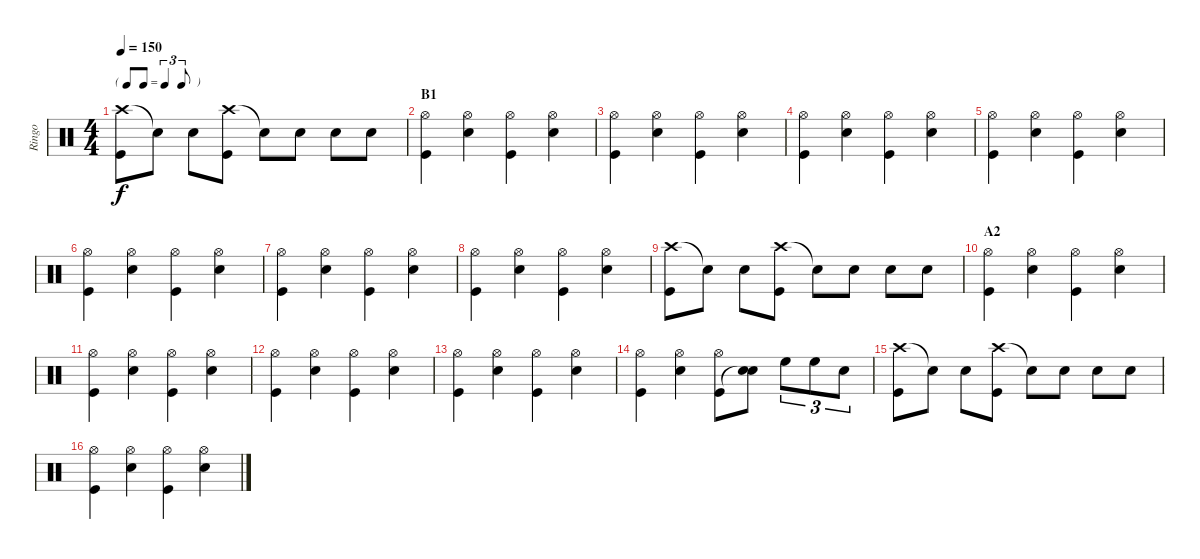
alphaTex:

\track ("Ringo" "Ringo") {instrument percussion}
\staff {score}
\articulation defaults
\ts (4 4)
\tf triplet8th
\tempo 150
\clef neutral
\ks c
("Crash high (hit)" "Kick (hit)").8{dy f} "Snare (hit)"{t}.8 "Snare (hit) 2".8 ("Crash high (hit)" "Kick (hit)").8 "Snare (hit)"{t}.8 "Snare (hit) 2".8 "Snare (hit) 2".8 "Snare (hit) 2".8 |
\section ("" "B1")
("Hi-Hat (open)" "Kick (hit)").4 ("Hi-Hat (open)" "Snare (hit) 2").4 ("Hi-Hat (open)" "Kick (hit)").4 ("Hi-Hat (open)" "Snare (hit) 2").4 |
("Hi-Hat (open)" "Kick (hit)").4 ("Hi-Hat (open)" "Snare (hit) 2").4 ("Hi-Hat (open)" "Kick (hit)").4 ("Hi-Hat (open)" "Snare (hit) 2").4 |
("Hi-Hat (open)" "Kick (hit)").4 ("Hi-Hat (open)" "Snare (hit) 2").4 ("Hi-Hat (open)" "Kick (hit)").4 ("Hi-Hat (open)" "Snare (hit) 2").4 |
("Hi-Hat (open)" "Kick (hit)").4 ("Hi-Hat (open)" "Snare (hit) 2").4 ("Hi-Hat (open)" "Kick (hit)").4 ("Hi-Hat (open)" "Snare (hit) 2").4 |
("Hi-Hat (open)" "Kick (hit)").4 ("Hi-Hat (open)" "Snare (hit) 2").4 ("Hi-Hat (open)" "Kick (hit)").4 ("Hi-Hat (open)" "Snare (hit) 2").4 |
("Hi-Hat (open)" "Kick (hit)").4 ("Hi-Hat (open)" "Snare (hit) 2").4 ("Hi-Hat (open)" "Kick (hit)").4 ("Hi-Hat (open)" "Snare (hit) 2").4 |
("Hi-Hat (open)" "Kick (hit)").4 ("Hi-Hat (open)" "Snare (hit) 2").4 ("Hi-Hat (open)" "Kick (hit)").4 ("Hi-Hat (open)" "Snare (hit) 2").4 |
("Crash high (hit)" "Kick (hit)").8 "Snare (hit)"{t}.8 "Snare (hit) 2".8 ("Crash high (hit)" "Kick (hit)").8 "Snare (hit)"{t}.8 "Snare (hit) 2".8 "Snare (hit) 2".8 "Snare (hit) 2".8 |
\section ("" "A2")
("Hi-Hat (open)" "Kick (hit)").4 ("Hi-Hat (open)" "Snare (hit) 2").4 ("Hi-Hat (open)" "Kick (hit)").4 ("Hi-Hat (open)" "Snare (hit) 2").4 |
("Hi-Hat (open)" "Kick (hit)").4 ("Hi-Hat (open)" "Snare (hit) 2").4 ("Hi-Hat (open)" "Kick (hit)").4 ("Hi-Hat (open)" "Snare (hit) 2").4 |
("Hi-Hat (open)" "Kick (hit)").4 ("Hi-Hat (open)" "Snare (hit) 2").4 ("Hi-Hat (open)" "Kick (hit)").4 ("Hi-Hat (open)" "Snare (hit) 2").4 |
("Hi-Hat (open)" "Kick (hit)").4 ("Hi-Hat (open)" "Snare (hit) 2").4 ("Hi-Hat (open)" "Kick (hit)").4 ("Hi-Hat (open)" "Snare (hit) 2").4 |
("Hi-Hat (open)" "Kick (hit)").4 ("Hi-Hat (open)" "Snare (hit) 2").4 ("Hi-Hat (open)" "Kick (hit)").8 ("Snare (hit) 2" "Snare (hit)"{t}).8 "High Floor Tom (hit)".8{tu (3 2)} "High Floor Tom (hit)".8{tu (3 2)} "Snare (hit) 2".8{tu (3 2)} |
("Crash high (hit)" "Kick (hit)").8 "Snare (hit)"{t}.8 "Snare (hit) 2".8 ("Crash high (hit)" "Kick (hit)").8 "Snare (hit)"{t}.8 "Snare (hit) 2".8 "Snare (hit) 2".8 "Snare (hit) 2".8 |
("Hi-Hat (open)" "Kick (hit)").4 ("Hi-Hat (open)" "Snare (hit) 2").4 ("Hi-Hat (open)" "Kick (hit)").4 ("Hi-Hat (open)" "Snare (hit) 2").4
